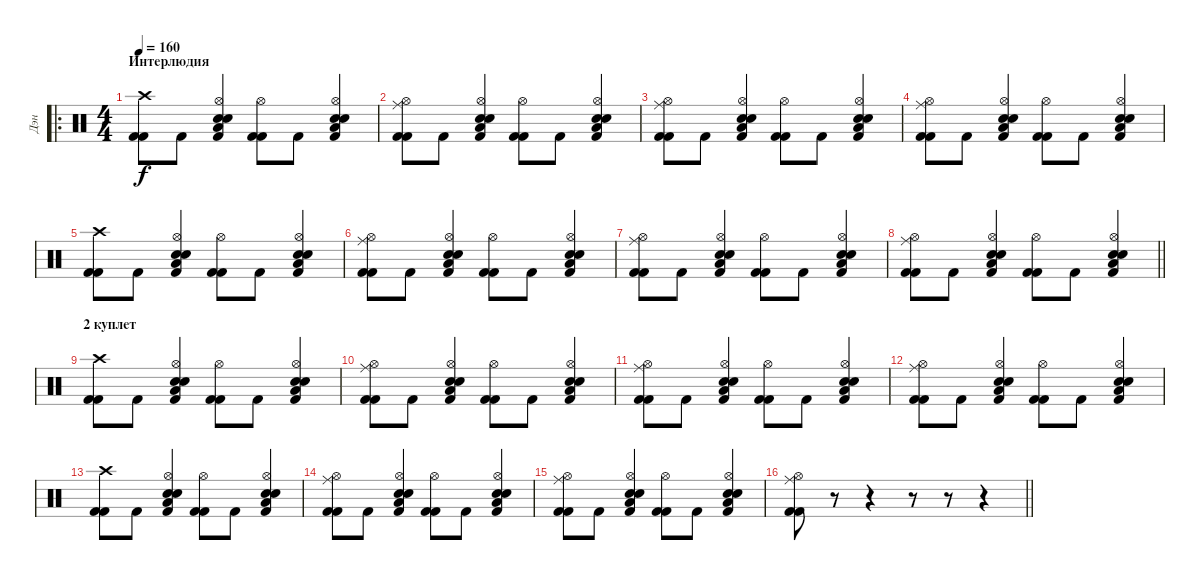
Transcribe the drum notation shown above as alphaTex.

\track ("Дэн" "Дэн") {instrument percussion}
\staff {score}
\articulation defaults
\ro
\ts (4 4)
\section ("" "Интерлюдия")
\tempo 160
\clef neutral
\ks c
("Crash high (hit)" "Kick (hit) 2" "Kick (hit) 2").8{dy f} "Kick (hit) 2".8 ("Hi-Hat (open)" "Low Tom (hit)" "Electric Snare (hit)" "Kick (hit) 2" "Electric Snare (hit)").4 ("Hi-Hat (open)" "Kick (hit) 2" "Kick (hit) 2").8 "Kick (hit) 2".8 ("Hi-Hat (open)" "Low Tom (hit)" "Electric Snare (hit)" "Kick (hit) 2" "Electric Snare (hit)").4 |
("Ride (middle)" "Hi-Hat (open)" "Kick (hit) 2" "Kick (hit) 2").8 "Kick (hit) 2".8 ("Hi-Hat (open)" "Low Tom (hit)" "Electric Snare (hit)" "Kick (hit) 2" "Electric Snare (hit)").4 ("Hi-Hat (open)" "Kick (hit) 2" "Kick (hit) 2").8 "Kick (hit) 2".8 ("Hi-Hat (open)" "Low Tom (hit)" "Electric Snare (hit)" "Kick (hit) 2" "Electric Snare (hit)").4 |
("Ride (middle)" "Hi-Hat (open)" "Kick (hit) 2" "Kick (hit) 2").8 "Kick (hit) 2".8 ("Hi-Hat (open)" "Low Tom (hit)" "Electric Snare (hit)" "Kick (hit) 2" "Electric Snare (hit)").4 ("Hi-Hat (open)" "Kick (hit) 2" "Kick (hit) 2").8 "Kick (hit) 2".8 ("Hi-Hat (open)" "Low Tom (hit)" "Electric Snare (hit)" "Kick (hit) 2" "Electric Snare (hit)").4 |
("Ride (middle)" "Hi-Hat (open)" "Kick (hit) 2" "Kick (hit) 2").8 "Kick (hit) 2".8 ("Hi-Hat (open)" "Low Tom (hit)" "Electric Snare (hit)" "Kick (hit) 2" "Electric Snare (hit)").4 ("Hi-Hat (open)" "Kick (hit) 2" "Kick (hit) 2").8 "Kick (hit) 2".8 ("Hi-Hat (open)" "Low Tom (hit)" "Electric Snare (hit)" "Kick (hit) 2" "Electric Snare (hit)").4 |
("Crash high (hit)" "Kick (hit) 2" "Kick (hit) 2").8 "Kick (hit) 2".8 ("Hi-Hat (open)" "Low Tom (hit)" "Electric Snare (hit)" "Kick (hit) 2" "Electric Snare (hit)").4 ("Hi-Hat (open)" "Kick (hit) 2" "Kick (hit) 2").8 "Kick (hit) 2".8 ("Hi-Hat (open)" "Low Tom (hit)" "Electric Snare (hit)" "Kick (hit) 2" "Electric Snare (hit)").4 |
("Ride (middle)" "Hi-Hat (open)" "Kick (hit) 2" "Kick (hit) 2").8 "Kick (hit) 2".8 ("Hi-Hat (open)" "Low Tom (hit)" "Electric Snare (hit)" "Kick (hit) 2" "Electric Snare (hit)").4 ("Hi-Hat (open)" "Kick (hit) 2" "Kick (hit) 2").8 "Kick (hit) 2".8 ("Hi-Hat (open)" "Low Tom (hit)" "Electric Snare (hit)" "Kick (hit) 2" "Electric Snare (hit)").4 |
("Ride (middle)" "Hi-Hat (open)" "Kick (hit) 2" "Kick (hit) 2").8 "Kick (hit) 2".8 ("Hi-Hat (open)" "Low Tom (hit)" "Electric Snare (hit)" "Kick (hit) 2" "Electric Snare (hit)").4 ("Hi-Hat (open)" "Kick (hit) 2" "Kick (hit) 2").8 "Kick (hit) 2".8 ("Hi-Hat (open)" "Low Tom (hit)" "Electric Snare (hit)" "Kick (hit) 2" "Electric Snare (hit)").4 |
\barLineRight lightlight
("Ride (middle)" "Hi-Hat (open)" "Kick (hit) 2" "Kick (hit) 2").8 "Kick (hit) 2".8 ("Hi-Hat (open)" "Low Tom (hit)" "Electric Snare (hit)" "Kick (hit) 2" "Electric Snare (hit)").4 ("Hi-Hat (open)" "Kick (hit) 2" "Kick (hit) 2").8 "Kick (hit) 2".8 ("Hi-Hat (open)" "Low Tom (hit)" "Electric Snare (hit)" "Kick (hit) 2" "Electric Snare (hit)").4 |
\section ("" "2 куплет")
("Crash high (hit)" "Kick (hit) 2" "Kick (hit) 2").8 "Kick (hit) 2".8 ("Hi-Hat (open)" "Low Tom (hit)" "Electric Snare (hit)" "Kick (hit) 2" "Electric Snare (hit)").4 ("Hi-Hat (open)" "Kick (hit) 2" "Kick (hit) 2").8 "Kick (hit) 2".8 ("Hi-Hat (open)" "Low Tom (hit)" "Electric Snare (hit)" "Kick (hit) 2" "Electric Snare (hit)").4 |
("Ride (middle)" "Hi-Hat (open)" "Kick (hit) 2" "Kick (hit) 2").8 "Kick (hit) 2".8 ("Hi-Hat (open)" "Low Tom (hit)" "Electric Snare (hit)" "Kick (hit) 2" "Electric Snare (hit)").4 ("Hi-Hat (open)" "Kick (hit) 2" "Kick (hit) 2").8 "Kick (hit) 2".8 ("Hi-Hat (open)" "Low Tom (hit)" "Electric Snare (hit)" "Kick (hit) 2" "Electric Snare (hit)").4 |
("Ride (middle)" "Hi-Hat (open)" "Kick (hit) 2" "Kick (hit) 2").8 "Kick (hit) 2".8 ("Hi-Hat (open)" "Low Tom (hit)" "Electric Snare (hit)" "Kick (hit) 2" "Electric Snare (hit)").4 ("Hi-Hat (open)" "Kick (hit) 2" "Kick (hit) 2").8 "Kick (hit) 2".8 ("Hi-Hat (open)" "Low Tom (hit)" "Electric Snare (hit)" "Kick (hit) 2" "Electric Snare (hit)").4 |
("Ride (middle)" "Hi-Hat (open)" "Kick (hit) 2" "Kick (hit) 2").8 "Kick (hit) 2".8 ("Hi-Hat (open)" "Low Tom (hit)" "Electric Snare (hit)" "Kick (hit) 2" "Electric Snare (hit)").4 ("Hi-Hat (open)" "Kick (hit) 2" "Kick (hit) 2").8 "Kick (hit) 2".8 ("Hi-Hat (open)" "Low Tom (hit)" "Electric Snare (hit)" "Kick (hit) 2" "Electric Snare (hit)").4 |
("Crash high (hit)" "Kick (hit) 2" "Kick (hit) 2").8 "Kick (hit) 2".8 ("Hi-Hat (open)" "Low Tom (hit)" "Electric Snare (hit)" "Kick (hit) 2" "Electric Snare (hit)").4 ("Hi-Hat (open)" "Kick (hit) 2" "Kick (hit) 2").8 "Kick (hit) 2".8 ("Hi-Hat (open)" "Low Tom (hit)" "Electric Snare (hit)" "Kick (hit) 2" "Electric Snare (hit)").4 |
("Ride (middle)" "Hi-Hat (open)" "Kick (hit) 2" "Kick (hit) 2").8 "Kick (hit) 2".8 ("Hi-Hat (open)" "Low Tom (hit)" "Electric Snare (hit)" "Kick (hit) 2" "Electric Snare (hit)").4 ("Hi-Hat (open)" "Kick (hit) 2" "Kick (hit) 2").8 "Kick (hit) 2".8 ("Hi-Hat (open)" "Low Tom (hit)" "Electric Snare (hit)" "Kick (hit) 2" "Electric Snare (hit)").4 |
("Ride (middle)" "Hi-Hat (open)" "Kick (hit) 2" "Kick (hit) 2").8 "Kick (hit) 2".8 ("Hi-Hat (open)" "Low Tom (hit)" "Electric Snare (hit)" "Kick (hit) 2" "Electric Snare (hit)").4 ("Hi-Hat (open)" "Kick (hit) 2" "Kick (hit) 2").8 "Kick (hit) 2".8 ("Hi-Hat (open)" "Low Tom (hit)" "Electric Snare (hit)" "Kick (hit) 2" "Electric Snare (hit)").4 |
\barLineRight lightlight
("Ride (middle)" "Hi-Hat (open)" "Kick (hit) 2" "Kick (hit) 2").8 r.8 r.4 r.8 r.8 r.4
